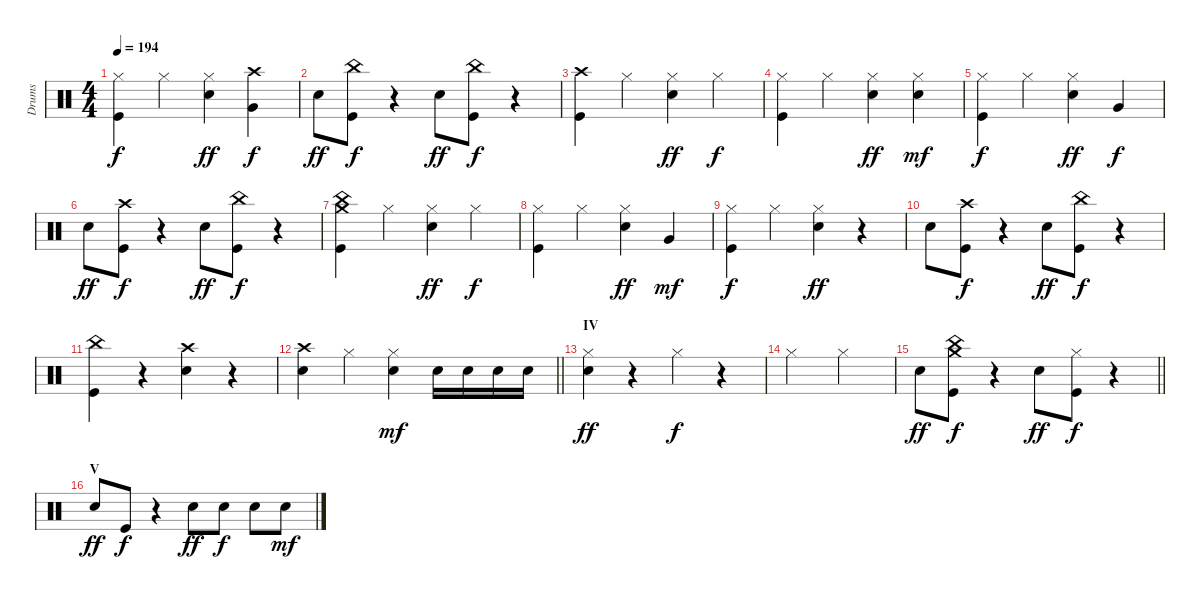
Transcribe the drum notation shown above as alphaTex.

\track ("Drums" "Drums") {instrument percussion}
\staff {score}
\articulation defaults
\ts (4 4)
\tempo 194
\clef neutral
\ks c
("Kick (hit)" "Hi-Hat (closed)").4{dy f} "Hi-Hat (closed)".4 ("Snare (hit) 2" "Hi-Hat (closed)").4{dy ff} ("Very Low Tom (hit)" "Crash high (hit)").4{dy f} |
"Snare (hit) 2".8{dy ff} ("Kick (hit)" "China (hit)").8{dy f} r.4 "Snare (hit) 2".8{dy ff} ("Kick (hit)" "China (hit)").8{dy f} r.4 |
("Kick (hit)" "Crash high (hit)").4 "Hi-Hat (closed)".4 ("Snare (hit) 2" "Hi-Hat (closed)").4{dy ff} "Hi-Hat (closed)".4{dy f} |
("Kick (hit)" "Hi-Hat (closed)").4 "Hi-Hat (closed)".4 ("Snare (hit) 2" "Hi-Hat (closed)").4{dy ff} ("Snare (hit) 2" "Hi-Hat (closed)").4{dy mf} |
("Kick (hit)" "Hi-Hat (closed)").4{dy f} "Hi-Hat (closed)".4 ("Snare (hit) 2" "Hi-Hat (closed)").4{dy ff} "Very Low Tom (hit)".4{dy f} |
"Snare (hit) 2".8{dy ff} ("Kick (hit)" "Crash high (hit)").8{dy f} r.4 "Snare (hit) 2".8{dy ff} ("Kick (hit)" "China (hit)").8{dy f} r.4 |
("Kick (hit)" "China (hit)" "Crash medium (hit)").4 "Hi-Hat (closed)".4 ("Snare (hit) 2" "Hi-Hat (closed)").4{dy ff} "Hi-Hat (closed)".4{dy f} |
("Kick (hit)" "Hi-Hat (closed)").4 "Hi-Hat (closed)".4 ("Snare (hit) 2" "Hi-Hat (closed)").4{dy ff} "Very Low Tom (hit)".4{dy mf} |
("Kick (hit)" "Hi-Hat (closed)").4{dy f} "Hi-Hat (closed)".4 ("Snare (hit) 2" "Hi-Hat (closed)").4{dy ff} r.4 |
"Snare (hit) 2".8 ("Kick (hit)" "Crash high (hit)").8{dy f} r.4 "Snare (hit) 2".8{dy ff} ("Kick (hit)" "China (hit)").8{dy f} r.4 |
("Kick (hit)" "China (hit)").4 r.4 ("Snare (hit) 2" "Crash high (hit)").4 r.4 |
\barLineRight lightlight
("Snare (hit) 2" "Crash high (hit)").4 "Hi-Hat (closed)".4 ("Snare (hit) 2" "Hi-Hat (closed)").4{dy mf} "Snare (hit) 2".16 "Snare (hit) 2".16 "Snare (hit) 2".16 "Snare (hit) 2".16 |
\section ("" "IV")
("Snare (hit) 2" "Hi-Hat (closed)").4{dy ff} r.4 "Hi-Hat (closed)".4{dy f} r.4 |
"Hi-Hat (closed)".2 "Hi-Hat (closed)".2 |
\barLineRight lightlight "Snare (hit) 2".8{dy ff}
("Kick (hit)" "China (hit)" "Crash medium (hit)").8{dy f} r.4 "Snare (hit) 2".8{dy ff} ("Kick (hit)" "Hi-Hat (closed)").8{dy f} r.4 |
\section ("" "V")
"Snare (hit) 2".8{dy ff} "Kick (hit)".8{dy f} r.4 "Snare (hit) 2".8{dy ff} "Snare (hit) 2".8{dy f} "Snare (hit) 2".8 "Snare (hit) 2".8{dy mf}
